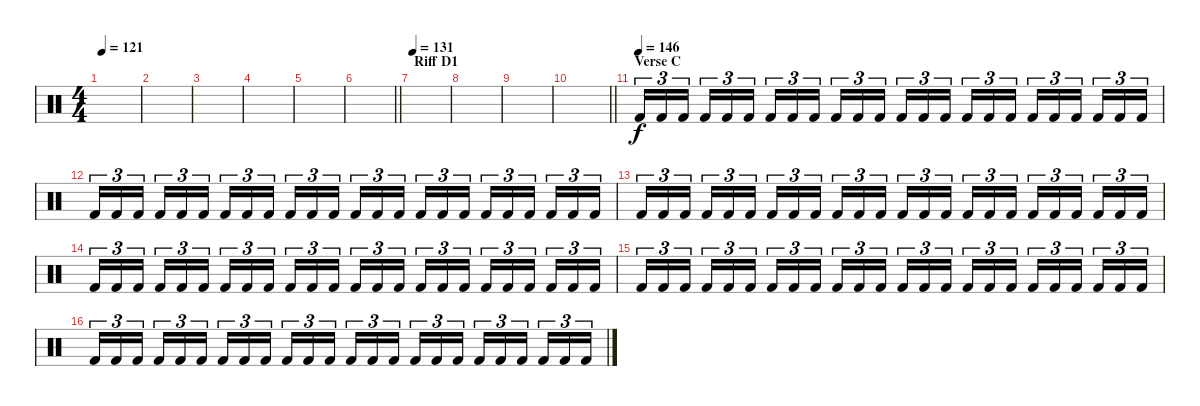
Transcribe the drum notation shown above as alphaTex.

\track "" {instrument percussion}
\staff {score}
\articulation defaults
\ts (4 4)
\tempo 121
\clef neutral
\ks c
|
|
|
|
|
\barLineRight lightlight
|
\section ("" "Riff D1")
\tempo 131
|
|
|
\barLineRight lightlight
|
\section ("" "Verse C")
\tempo (146)
"Kick (hit) 2".16{tu (3 2)} "Kick (hit) 2".16{tu (3 2)} "Kick (hit) 2".16{tu (3 2) beam splitsecondary} "Kick (hit) 2".16{tu (3 2)} "Kick (hit) 2".16{tu (3 2)} "Kick (hit) 2".16{tu (3 2)} "Kick (hit) 2".16{tu (3 2)} "Kick (hit) 2".16{tu (3 2)} "Kick (hit) 2".16{tu (3 2) beam splitsecondary} "Kick (hit) 2".16{tu (3 2)} "Kick (hit) 2".16{tu (3 2)} "Kick (hit) 2".16{tu (3 2)} "Kick (hit) 2".16{tu (3 2)} "Kick (hit) 2".16{tu (3 2)} "Kick (hit) 2".16{tu (3 2) beam splitsecondary} "Kick (hit) 2".16{tu (3 2)} "Kick (hit) 2".16{tu (3 2)} "Kick (hit) 2".16{tu (3 2)} "Kick (hit) 2".16{tu (3 2)} "Kick (hit) 2".16{tu (3 2)} "Kick (hit) 2".16{tu (3 2) beam splitsecondary} "Kick (hit) 2".16{tu (3 2)} "Kick (hit) 2".16{tu (3 2)} "Kick (hit) 2".16{tu (3 2)} |
"Kick (hit) 2".16{tu (3 2)} "Kick (hit) 2".16{tu (3 2)} "Kick (hit) 2".16{tu (3 2) beam splitsecondary} "Kick (hit) 2".16{tu (3 2)} "Kick (hit) 2".16{tu (3 2)} "Kick (hit) 2".16{tu (3 2)} "Kick (hit) 2".16{tu (3 2)} "Kick (hit) 2".16{tu (3 2)} "Kick (hit) 2".16{tu (3 2) beam splitsecondary} "Kick (hit) 2".16{tu (3 2)} "Kick (hit) 2".16{tu (3 2)} "Kick (hit) 2".16{tu (3 2)} "Kick (hit) 2".16{tu (3 2)} "Kick (hit) 2".16{tu (3 2)} "Kick (hit) 2".16{tu (3 2) beam splitsecondary} "Kick (hit) 2".16{tu (3 2)} "Kick (hit) 2".16{tu (3 2)} "Kick (hit) 2".16{tu (3 2)} "Kick (hit) 2".16{tu (3 2)} "Kick (hit) 2".16{tu (3 2)} "Kick (hit) 2".16{tu (3 2) beam splitsecondary} "Kick (hit) 2".16{tu (3 2)} "Kick (hit) 2".16{tu (3 2)} "Kick (hit) 2".16{tu (3 2)} |
"Kick (hit) 2".16{tu (3 2)} "Kick (hit) 2".16{tu (3 2)} "Kick (hit) 2".16{tu (3 2) beam splitsecondary} "Kick (hit) 2".16{tu (3 2)} "Kick (hit) 2".16{tu (3 2)} "Kick (hit) 2".16{tu (3 2)} "Kick (hit) 2".16{tu (3 2)} "Kick (hit) 2".16{tu (3 2)} "Kick (hit) 2".16{tu (3 2) beam splitsecondary} "Kick (hit) 2".16{tu (3 2)} "Kick (hit) 2".16{tu (3 2)} "Kick (hit) 2".16{tu (3 2)} "Kick (hit) 2".16{tu (3 2)} "Kick (hit) 2".16{tu (3 2)} "Kick (hit) 2".16{tu (3 2) beam splitsecondary} "Kick (hit) 2".16{tu (3 2)} "Kick (hit) 2".16{tu (3 2)} "Kick (hit) 2".16{tu (3 2)} "Kick (hit) 2".16{tu (3 2)} "Kick (hit) 2".16{tu (3 2)} "Kick (hit) 2".16{tu (3 2) beam splitsecondary} "Kick (hit) 2".16{tu (3 2)} "Kick (hit) 2".16{tu (3 2)} "Kick (hit) 2".16{tu (3 2)} |
"Kick (hit) 2".16{tu (3 2)} "Kick (hit) 2".16{tu (3 2)} "Kick (hit) 2".16{tu (3 2) beam splitsecondary} "Kick (hit) 2".16{tu (3 2)} "Kick (hit) 2".16{tu (3 2)} "Kick (hit) 2".16{tu (3 2)} "Kick (hit) 2".16{tu (3 2)} "Kick (hit) 2".16{tu (3 2)} "Kick (hit) 2".16{tu (3 2) beam splitsecondary} "Kick (hit) 2".16{tu (3 2)} "Kick (hit) 2".16{tu (3 2)} "Kick (hit) 2".16{tu (3 2)} "Kick (hit) 2".16{tu (3 2)} "Kick (hit) 2".16{tu (3 2)} "Kick (hit) 2".16{tu (3 2) beam splitsecondary} "Kick (hit) 2".16{tu (3 2)} "Kick (hit) 2".16{tu (3 2)} "Kick (hit) 2".16{tu (3 2)} "Kick (hit) 2".16{tu (3 2)} "Kick (hit) 2".16{tu (3 2)} "Kick (hit) 2".16{tu (3 2) beam splitsecondary} "Kick (hit) 2".16{tu (3 2)} "Kick (hit) 2".16{tu (3 2)} "Kick (hit) 2".16{tu (3 2)} |
"Kick (hit) 2".16{tu (3 2)} "Kick (hit) 2".16{tu (3 2)} "Kick (hit) 2".16{tu (3 2) beam splitsecondary} "Kick (hit) 2".16{tu (3 2)} "Kick (hit) 2".16{tu (3 2)} "Kick (hit) 2".16{tu (3 2)} "Kick (hit) 2".16{tu (3 2)} "Kick (hit) 2".16{tu (3 2)} "Kick (hit) 2".16{tu (3 2) beam splitsecondary} "Kick (hit) 2".16{tu (3 2)} "Kick (hit) 2".16{tu (3 2)} "Kick (hit) 2".16{tu (3 2)} "Kick (hit) 2".16{tu (3 2)} "Kick (hit) 2".16{tu (3 2)} "Kick (hit) 2".16{tu (3 2) beam splitsecondary} "Kick (hit) 2".16{tu (3 2)} "Kick (hit) 2".16{tu (3 2)} "Kick (hit) 2".16{tu (3 2)} "Kick (hit) 2".16{tu (3 2)} "Kick (hit) 2".16{tu (3 2)} "Kick (hit) 2".16{tu (3 2) beam splitsecondary} "Kick (hit) 2".16{tu (3 2)} "Kick (hit) 2".16{tu (3 2)} "Kick (hit) 2".16{tu (3 2)} |
"Kick (hit) 2".16{tu (3 2)} "Kick (hit) 2".16{tu (3 2)} "Kick (hit) 2".16{tu (3 2) beam splitsecondary} "Kick (hit) 2".16{tu (3 2)} "Kick (hit) 2".16{tu (3 2)} "Kick (hit) 2".16{tu (3 2)} "Kick (hit) 2".16{tu (3 2)} "Kick (hit) 2".16{tu (3 2)} "Kick (hit) 2".16{tu (3 2) beam splitsecondary} "Kick (hit) 2".16{tu (3 2)} "Kick (hit) 2".16{tu (3 2)} "Kick (hit) 2".16{tu (3 2)} "Kick (hit) 2".16{tu (3 2)} "Kick (hit) 2".16{tu (3 2)} "Kick (hit) 2".16{tu (3 2) beam splitsecondary} "Kick (hit) 2".16{tu (3 2)} "Kick (hit) 2".16{tu (3 2)} "Kick (hit) 2".16{tu (3 2)} "Kick (hit) 2".16{tu (3 2)} "Kick (hit) 2".16{tu (3 2)} "Kick (hit) 2".16{tu (3 2) beam splitsecondary} "Kick (hit) 2".16{tu (3 2)} "Kick (hit) 2".16{tu (3 2)} "Kick (hit) 2".16{tu (3 2)}
